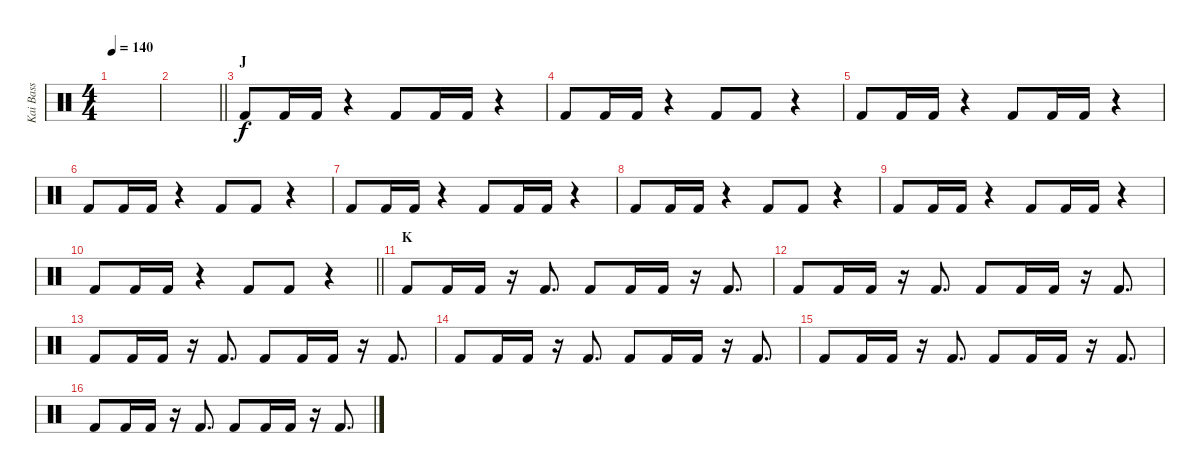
\track ("Kai Bass" "Kai Bass") {instrument percussion}
\staff {score}
\articulation defaults
\ts (4 4)
\tempo 140
\clef neutral
\ks c
|
\barLineRight lightlight
|
\section ("" "J")
"Kick (hit) 2".8 "Kick (hit) 2".16 "Kick (hit) 2".16 r.4 "Kick (hit) 2".8 "Kick (hit) 2".16 "Kick (hit) 2".16 r.4 |
"Kick (hit) 2".8 "Kick (hit) 2".16 "Kick (hit) 2".16 r.4 "Kick (hit) 2".8 "Kick (hit) 2".8 r.4 |
"Kick (hit) 2".8 "Kick (hit) 2".16 "Kick (hit) 2".16 r.4 "Kick (hit) 2".8 "Kick (hit) 2".16 "Kick (hit) 2".16 r.4 |
"Kick (hit) 2".8 "Kick (hit) 2".16 "Kick (hit) 2".16 r.4 "Kick (hit) 2".8 "Kick (hit) 2".8 r.4 |
"Kick (hit) 2".8 "Kick (hit) 2".16 "Kick (hit) 2".16 r.4 "Kick (hit) 2".8 "Kick (hit) 2".16 "Kick (hit) 2".16 r.4 |
"Kick (hit) 2".8 "Kick (hit) 2".16 "Kick (hit) 2".16 r.4 "Kick (hit) 2".8 "Kick (hit) 2".8 r.4 |
"Kick (hit) 2".8 "Kick (hit) 2".16 "Kick (hit) 2".16 r.4 "Kick (hit) 2".8 "Kick (hit) 2".16 "Kick (hit) 2".16 r.4 |
\barLineRight lightlight "Kick (hit) 2".8 "Kick (hit) 2".16 "Kick (hit) 2".16
r.4 "Kick (hit) 2".8 "Kick (hit) 2".8 r.4 |
\section ("" "K")
"Kick (hit) 2".8 "Kick (hit) 2".16 "Kick (hit) 2".16 r.16 "Kick (hit) 2".8{d} "Kick (hit) 2".8 "Kick (hit) 2".16 "Kick (hit) 2".16 r.16 "Kick (hit) 2".8{d} |
"Kick (hit) 2".8 "Kick (hit) 2".16 "Kick (hit) 2".16 r.16 "Kick (hit) 2".8{d} "Kick (hit) 2".8 "Kick (hit) 2".16 "Kick (hit) 2".16 r.16 "Kick (hit) 2".8{d} |
"Kick (hit) 2".8 "Kick (hit) 2".16 "Kick (hit) 2".16 r.16 "Kick (hit) 2".8{d} "Kick (hit) 2".8 "Kick (hit) 2".16 "Kick (hit) 2".16 r.16 "Kick (hit) 2".8{d} |
"Kick (hit) 2".8 "Kick (hit) 2".16 "Kick (hit) 2".16 r.16 "Kick (hit) 2".8{d} "Kick (hit) 2".8 "Kick (hit) 2".16 "Kick (hit) 2".16 r.16 "Kick (hit) 2".8{d} |
"Kick (hit) 2".8 "Kick (hit) 2".16 "Kick (hit) 2".16 r.16 "Kick (hit) 2".8{d} "Kick (hit) 2".8 "Kick (hit) 2".16 "Kick (hit) 2".16 r.16 "Kick (hit) 2".8{d} |
"Kick (hit) 2".8 "Kick (hit) 2".16 "Kick (hit) 2".16 r.16 "Kick (hit) 2".8{d} "Kick (hit) 2".8 "Kick (hit) 2".16 "Kick (hit) 2".16 r.16 "Kick (hit) 2".8{d}
